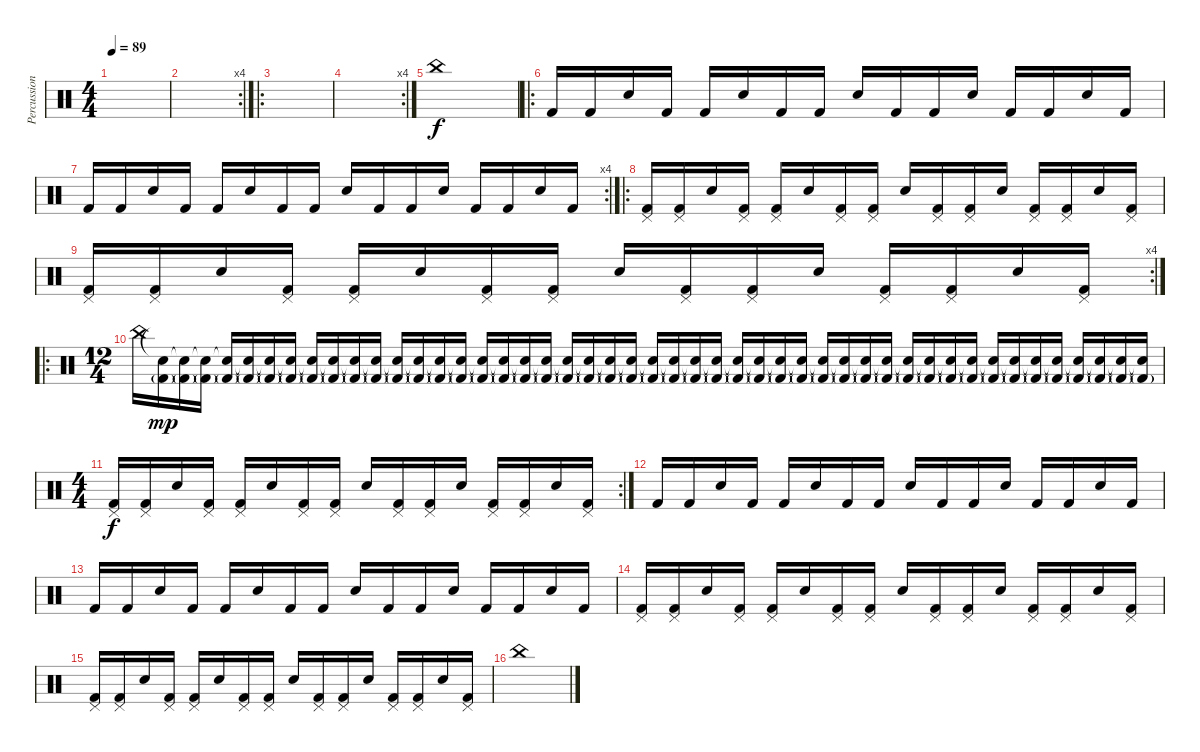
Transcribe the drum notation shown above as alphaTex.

\track ("Percussion" "Percussion") {instrument percussion}
\staff {score}
\articulation defaults
\ts (4 4)
\tempo 89
\clef neutral
\ks c
|
\rc 4
|
\ro
|
\rc 4
|
"China (hit)".1 |
\ro "Kick (hit) 2".16 "Kick (hit) 2".16 "Electric Snare (hit)".16 "Kick (hit) 2".16 "Kick (hit) 2".16 "Electric Snare (hit)".16 "Kick (hit) 2".16 "Kick (hit) 2".16 "Electric Snare (hit)".16 "Kick (hit) 2".16 "Kick (hit) 2".16 "Electric Snare (hit)".16 "Kick (hit) 2".16 "Kick (hit) 2".16 "Electric Snare (hit)".16 "Kick (hit) 2".16
|
\rc 4 "Kick (hit) 2".16 "Kick (hit) 2".16 "Electric Snare (hit)".16 "Kick (hit) 2".16 "Kick (hit) 2".16 "Electric Snare (hit)".16 "Kick (hit) 2".16 "Kick (hit) 2".16 "Electric Snare (hit)".16 "Kick (hit) 2".16 "Kick (hit) 2".16 "Electric Snare (hit)".16 "Kick (hit) 2".16 "Kick (hit) 2".16 "Electric Snare (hit)".16 "Kick (hit) 2".16
|
\ro
("Pedal Hi-Hat (hit)" "Kick (hit) 2").16 ("Pedal Hi-Hat (hit)" "Kick (hit) 2").16 "Electric Snare (hit)".16 ("Pedal Hi-Hat (hit)" "Kick (hit) 2").16 ("Pedal Hi-Hat (hit)" "Kick (hit) 2").16 "Electric Snare (hit)".16 ("Pedal Hi-Hat (hit)" "Kick (hit) 2").16 ("Pedal Hi-Hat (hit)" "Kick (hit) 2").16 "Electric Snare (hit)".16 ("Pedal Hi-Hat (hit)" "Kick (hit) 2").16 ("Pedal Hi-Hat (hit)" "Kick (hit) 2").16 "Electric Snare (hit)".16 ("Pedal Hi-Hat (hit)" "Kick (hit) 2").16 ("Pedal Hi-Hat (hit)" "Kick (hit) 2").16 "Electric Snare (hit)".16 ("Pedal Hi-Hat (hit)" "Kick (hit) 2").16 |
\rc 4
("Pedal Hi-Hat (hit)" "Kick (hit) 2").16 ("Pedal Hi-Hat (hit)" "Kick (hit) 2").16 "Electric Snare (hit)".16 ("Pedal Hi-Hat (hit)" "Kick (hit) 2").16 ("Pedal Hi-Hat (hit)" "Kick (hit) 2").16 "Electric Snare (hit)".16 ("Pedal Hi-Hat (hit)" "Kick (hit) 2").16 ("Pedal Hi-Hat (hit)" "Kick (hit) 2").16 "Electric Snare (hit)".16 ("Pedal Hi-Hat (hit)" "Kick (hit) 2").16 ("Pedal Hi-Hat (hit)" "Kick (hit) 2").16 "Electric Snare (hit)".16 ("Pedal Hi-Hat (hit)" "Kick (hit) 2").16 ("Pedal Hi-Hat (hit)" "Kick (hit) 2").16 "Electric Snare (hit)".16 ("Pedal Hi-Hat (hit)" "Kick (hit) 2").16 |
\ro
\ts (12 4)
"China (hit)".16 ("Snare (hit)"{t} "Kick (hit) 2"{g}).16{dy mp} ("Snare (hit)"{t} "Kick (hit) 2"{g}).16 ("Snare (hit)"{t} "Kick (hit) 2"{g}).16 ("Snare (hit)"{t} "Kick (hit) 2"{g}).16 ("Snare (hit)"{t} "Kick (hit) 2"{g}).16 ("Snare (hit)"{t} "Kick (hit) 2"{g}).16 ("Snare (hit)"{t} "Kick (hit) 2"{g}).16 ("Snare (hit)"{t} "Kick (hit) 2"{g}).16 ("Snare (hit)"{t} "Kick (hit) 2"{g}).16 ("Snare (hit)"{t} "Kick (hit) 2"{g}).16 ("Snare (hit)"{t} "Kick (hit) 2"{g}).16 ("Snare (hit)"{t} "Kick (hit) 2"{g}).16 ("Snare (hit)"{t} "Kick (hit) 2"{g}).16 ("Snare (hit)"{t} "Kick (hit) 2"{g}).16 ("Snare (hit)"{t} "Kick (hit) 2"{g}).16 ("Snare (hit)"{t} "Kick (hit) 2"{g}).16 ("Snare (hit)"{t} "Kick (hit) 2"{g}).16 ("Snare (hit)"{t} "Kick (hit) 2"{g}).16 ("Snare (hit)"{t} "Kick (hit) 2"{g}).16 ("Snare (hit)"{t} "Kick (hit) 2"{g}).16 ("Snare (hit)"{t} "Kick (hit) 2"{g}).16 ("Snare (hit)"{t} "Kick (hit) 2"{g}).16 ("Snare (hit)"{t} "Kick (hit) 2"{g}).16 ("Snare (hit)"{t} "Kick (hit) 2"{g}).16 ("Snare (hit)"{t} "Kick (hit) 2"{g}).16 ("Snare (hit)"{t} "Kick (hit) 2"{g}).16 ("Snare (hit)"{t} "Kick (hit) 2"{g}).16 ("Snare (hit)"{t} "Kick (hit) 2"{g}).16 ("Snare (hit)"{t} "Kick (hit) 2"{g}).16 ("Snare (hit)"{t} "Kick (hit) 2"{g}).16 ("Snare (hit)"{t} "Kick (hit) 2"{g}).16 ("Snare (hit)"{t} "Kick (hit) 2"{g}).16 ("Snare (hit)"{t} "Kick (hit) 2"{g}).16 ("Snare (hit)"{t} "Kick (hit) 2"{g}).16 ("Snare (hit)"{t} "Kick (hit) 2"{g}).16 ("Snare (hit)"{t} "Kick (hit) 2"{g}).16 ("Snare (hit)"{t} "Kick (hit) 2"{g}).16 ("Snare (hit)"{t} "Kick (hit) 2"{g}).16 ("Snare (hit)"{t} "Kick (hit) 2"{g}).16 ("Snare (hit)"{t} "Kick (hit) 2"{g}).16 ("Snare (hit)"{t} "Kick (hit) 2"{g}).16 ("Snare (hit)"{t} "Kick (hit) 2"{g}).16 ("Snare (hit)"{t} "Kick (hit) 2"{g}).16 ("Snare (hit)"{t} "Kick (hit) 2"{g}).16 ("Snare (hit)"{t} "Kick (hit) 2"{g}).16 ("Snare (hit)"{t} "Kick (hit) 2"{g}).16 ("Snare (hit)"{t} "Kick (hit) 2"{g}).16 |
\rc 2
\ts (4 4)
("Pedal Hi-Hat (hit)" "Kick (hit) 2").16{dy f} ("Pedal Hi-Hat (hit)" "Kick (hit) 2").16 "Electric Snare (hit)".16 ("Pedal Hi-Hat (hit)" "Kick (hit) 2").16 ("Pedal Hi-Hat (hit)" "Kick (hit) 2").16 "Electric Snare (hit)".16 ("Pedal Hi-Hat (hit)" "Kick (hit) 2").16 ("Pedal Hi-Hat (hit)" "Kick (hit) 2").16 "Electric Snare (hit)".16 ("Pedal Hi-Hat (hit)" "Kick (hit) 2").16 ("Pedal Hi-Hat (hit)" "Kick (hit) 2").16 "Electric Snare (hit)".16 ("Pedal Hi-Hat (hit)" "Kick (hit) 2").16 ("Pedal Hi-Hat (hit)" "Kick (hit) 2").16 "Electric Snare (hit)".16 ("Pedal Hi-Hat (hit)" "Kick (hit) 2").16 |
"Kick (hit) 2".16 "Kick (hit) 2".16 "Electric Snare (hit)".16 "Kick (hit) 2".16 "Kick (hit) 2".16 "Electric Snare (hit)".16 "Kick (hit) 2".16 "Kick (hit) 2".16 "Electric Snare (hit)".16 "Kick (hit) 2".16 "Kick (hit) 2".16 "Electric Snare (hit)".16 "Kick (hit) 2".16 "Kick (hit) 2".16 "Electric Snare (hit)".16 "Kick (hit) 2".16 |
"Kick (hit) 2".16 "Kick (hit) 2".16 "Electric Snare (hit)".16 "Kick (hit) 2".16 "Kick (hit) 2".16 "Electric Snare (hit)".16 "Kick (hit) 2".16 "Kick (hit) 2".16 "Electric Snare (hit)".16 "Kick (hit) 2".16 "Kick (hit) 2".16 "Electric Snare (hit)".16 "Kick (hit) 2".16 "Kick (hit) 2".16 "Electric Snare (hit)".16 "Kick (hit) 2".16 |
("Pedal Hi-Hat (hit)" "Kick (hit) 2").16 ("Pedal Hi-Hat (hit)" "Kick (hit) 2").16 "Electric Snare (hit)".16 ("Pedal Hi-Hat (hit)" "Kick (hit) 2").16 ("Pedal Hi-Hat (hit)" "Kick (hit) 2").16 "Electric Snare (hit)".16 ("Pedal Hi-Hat (hit)" "Kick (hit) 2").16 ("Pedal Hi-Hat (hit)" "Kick (hit) 2").16 "Electric Snare (hit)".16 ("Pedal Hi-Hat (hit)" "Kick (hit) 2").16 ("Pedal Hi-Hat (hit)" "Kick (hit) 2").16 "Electric Snare (hit)".16 ("Pedal Hi-Hat (hit)" "Kick (hit) 2").16 ("Pedal Hi-Hat (hit)" "Kick (hit) 2").16 "Electric Snare (hit)".16 ("Pedal Hi-Hat (hit)" "Kick (hit) 2").16 |
("Pedal Hi-Hat (hit)" "Kick (hit) 2").16 ("Pedal Hi-Hat (hit)" "Kick (hit) 2").16 "Electric Snare (hit)".16 ("Pedal Hi-Hat (hit)" "Kick (hit) 2").16 ("Pedal Hi-Hat (hit)" "Kick (hit) 2").16 "Electric Snare (hit)".16 ("Pedal Hi-Hat (hit)" "Kick (hit) 2").16 ("Pedal Hi-Hat (hit)" "Kick (hit) 2").16 "Electric Snare (hit)".16 ("Pedal Hi-Hat (hit)" "Kick (hit) 2").16 ("Pedal Hi-Hat (hit)" "Kick (hit) 2").16 "Electric Snare (hit)".16 ("Pedal Hi-Hat (hit)" "Kick (hit) 2").16 ("Pedal Hi-Hat (hit)" "Kick (hit) 2").16 "Electric Snare (hit)".16 ("Pedal Hi-Hat (hit)" "Kick (hit) 2").16 |
"China (hit)".1
